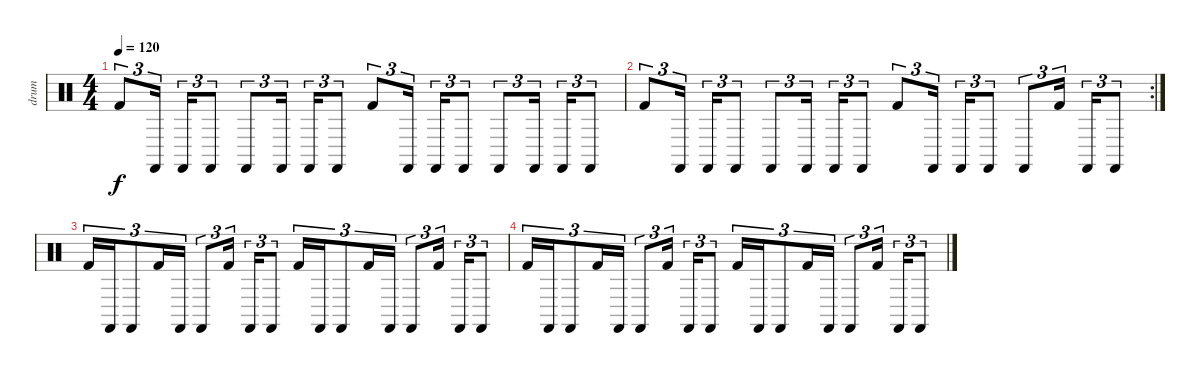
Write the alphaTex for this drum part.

\track ("drum" "drum") {instrument percussion}
\staff {score}
\articulation defaults
\ts (4 4)
\tempo 120
\clef neutral
\ks c "Kick (hit) 2".8{tu (3 2) dy f} "Castanets (hit)".16{tu (3 2)} "Castanets (hit)".16{tu (3 2)} "Castanets (hit)".8{tu (3 2)} "Castanets (hit)".8{tu (3 2)} "Castanets (hit)".16{tu (3 2)} "Castanets (hit)".16{tu (3 2)} "Castanets (hit)".8{tu (3 2)} "Kick (hit) 2".8{tu (3 2)} "Castanets (hit)".16{tu (3 2)} "Castanets (hit)".16{tu (3 2)} "Castanets (hit)".8{tu (3 2)} "Castanets (hit)".8{tu (3 2)} "Castanets (hit)".16{tu (3 2)} "Castanets (hit)".16{tu (3 2)} "Castanets (hit)".8{tu (3 2)}
|
\rc 2 "Kick (hit) 2".8{tu (3 2)} "Castanets (hit)".16{tu (3 2)} "Castanets (hit)".16{tu (3 2)} "Castanets (hit)".8{tu (3 2)} "Castanets (hit)".8{tu (3 2)} "Castanets (hit)".16{tu (3 2)} "Castanets (hit)".16{tu (3 2)} "Castanets (hit)".8{tu (3 2)} "Kick (hit) 2".8{tu (3 2)} "Castanets (hit)".16{tu (3 2)} "Castanets (hit)".16{tu (3 2)} "Castanets (hit)".8{tu (3 2)} "Castanets (hit)".8{tu (3 2)} "Kick (hit) 2".16{tu (3 2)} "Castanets (hit)".16{tu (3 2)} "Castanets (hit)".8{tu (3 2)}
|
"Kick (hit) 2".16{tu (3 2)} "Castanets (hit)".16{tu (3 2)} "Castanets (hit)".8{tu (3 2)} "Kick (hit) 2".16{tu (3 2)} "Castanets (hit)".16{tu (3 2)} "Castanets (hit)".8{tu (3 2)} "Kick (hit) 2".16{tu (3 2)} "Castanets (hit)".16{tu (3 2)} "Castanets (hit)".8{tu (3 2)} "Kick (hit) 2".16{tu (3 2)} "Castanets (hit)".16{tu (3 2)} "Castanets (hit)".8{tu (3 2)} "Kick (hit) 2".16{tu (3 2)} "Castanets (hit)".16{tu (3 2)} "Castanets (hit)".8{tu (3 2)} "Kick (hit) 2".16{tu (3 2)} "Castanets (hit)".16{tu (3 2)} "Castanets (hit)".8{tu (3 2)} |
"Kick (hit) 2".16{tu (3 2)} "Castanets (hit)".16{tu (3 2)} "Castanets (hit)".8{tu (3 2)} "Kick (hit) 2".16{tu (3 2)} "Castanets (hit)".16{tu (3 2)} "Castanets (hit)".8{tu (3 2)} "Kick (hit) 2".16{tu (3 2)} "Castanets (hit)".16{tu (3 2)} "Castanets (hit)".8{tu (3 2)} "Kick (hit) 2".16{tu (3 2)} "Castanets (hit)".16{tu (3 2)} "Castanets (hit)".8{tu (3 2)} "Kick (hit) 2".16{tu (3 2)} "Castanets (hit)".16{tu (3 2)} "Castanets (hit)".8{tu (3 2)} "Kick (hit) 2".16{tu (3 2)} "Castanets (hit)".16{tu (3 2)} "Castanets (hit)".8{tu (3 2)}
